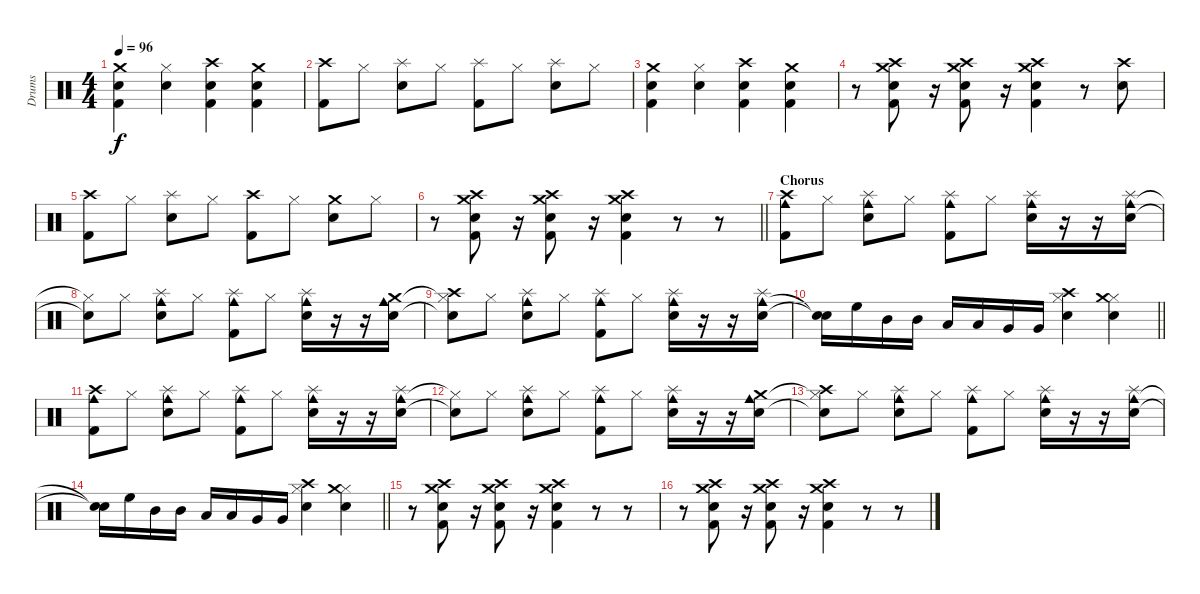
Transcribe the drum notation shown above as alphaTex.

\track ("Drums" "Drums") {instrument percussion}
\staff {score}
\articulation defaults
\ts (4 4)
\tempo 96
\clef neutral
\ks c
("Snare (hit) 2" "Kick (hit) 2" "Crash medium (hit)").4{dy f} ("Snare (hit) 2" "Hi-Hat (closed)").4 ("Snare (hit) 2" "Kick (hit) 2" "Crash high (hit)").4 ("Snare (hit) 2" "Kick (hit) 2" "Crash medium (hit)").4 |
("Kick (hit) 2" "Crash high (hit)").8 "Hi-Hat (closed)".8 ("Snare (hit) 2" "Splash (hit)").8 "Hi-Hat (closed)".8 ("Kick (hit) 2" "Splash (hit)").8 "Hi-Hat (closed)".8 ("Snare (hit) 2" "Splash (hit)").8 "Hi-Hat (closed)".8 |
("Snare (hit) 2" "Kick (hit) 2" "Crash medium (hit)").4 ("Snare (hit) 2" "Hi-Hat (closed)").4 ("Snare (hit) 2" "Kick (hit) 2" "Crash high (hit)").4 ("Snare (hit) 2" "Kick (hit) 2" "Crash medium (hit)").4 |
r.8 ("Snare (hit) 2" "Kick (hit) 2" "Crash high (hit)" "Crash medium (hit)").8 r.16 ("Snare (hit) 2" "Kick (hit) 2" "Crash high (hit)" "Crash medium (hit)").8 r.16 ("Snare (hit) 2" "Kick (hit) 2" "Crash high (hit)" "Crash medium (hit)").4 r.8 ("Snare (hit) 2" "Crash high (hit)").8 |
("Kick (hit) 2" "Crash high (hit)").8 "Hi-Hat (closed)".8 ("Snare (hit) 2" "Splash (hit)").8 "Hi-Hat (closed)".8 ("Kick (hit) 2" "Crash high (hit)").8 "Hi-Hat (closed)".8 ("Snare (hit) 2" "Crash medium (hit)").8 "Hi-Hat (closed)".8 |
\barLineRight lightlight
r.8 ("Snare (hit) 2" "Kick (hit) 2" "Crash high (hit)" "Crash medium (hit)").8 r.16 ("Snare (hit) 2" "Kick (hit) 2" "Crash high (hit)" "Crash medium (hit)").8 r.16 ("Snare (hit) 2" "Kick (hit) 2" "Crash high (hit)" "Crash medium (hit)").4 r.8 r.8 |
\section ("" "Chorus")
("Kick (hit) 2" "Cowbell medium (hit)" "Crash high (hit)").8 "Hi-Hat (closed)".8 ("Snare (hit) 2" "Cowbell medium (hit)" "Splash (hit)").8 "Hi-Hat (closed)".8 ("Kick (hit) 2" "Cowbell medium (hit)" "Splash (hit)").8 "Hi-Hat (closed)".8 ("Snare (hit) 2" "Cowbell medium (hit)" "Splash (hit)").16 r.16 r.16 ("Snare (hit) 2" "Cowbell medium (hit)" "Splash (hit)").16 |
("Snare (hit) 2"{t} "Hi-Hat (closed)"{t}).8 "Hi-Hat (closed)".8 ("Snare (hit) 2" "Cowbell medium (hit)" "Splash (hit)").8 "Hi-Hat (closed)".8 ("Kick (hit) 2" "Cowbell medium (hit)" "Splash (hit)").8 "Hi-Hat (closed)".8 ("Snare (hit) 2" "Cowbell medium (hit)" "Splash (hit)").16 r.16 r.16 ("Snare (hit) 2" "Cowbell medium (hit)" "Crash medium (hit)").16 |
("Snare (hit) 2"{t} "Hi-Hat (closed)"{t} "Crash high (hit)").8 "Hi-Hat (closed)".8 ("Snare (hit) 2" "Cowbell medium (hit)" "Splash (hit)").8 "Hi-Hat (closed)".8 ("Kick (hit) 2" "Cowbell medium (hit)" "Splash (hit)").8 "Hi-Hat (closed)".8 ("Snare (hit) 2" "Cowbell medium (hit)" "Splash (hit)").16 r.16 r.16 ("Snare (hit) 2" "Cowbell medium (hit)" "Splash (hit)").16 |
\barLineRight lightlight
("Snare (hit)"{t} "Snare (hit)"{t}).16 "High Floor Tom (hit)".16 "Mid Tom (hit)".16 "Mid Tom (hit)".16 "Low Tom (hit)".16 "Low Tom (hit)".16 "Very Low Tom (hit)".16 "Very Low Tom (hit)".16 ("Snare (hit) 2" "Hi-Hat (closed)" "Crash high (hit)").4 ("Snare (hit) 2" "Hi-Hat (closed)" "Crash medium (hit)").4 |
("Kick (hit) 2" "Cowbell medium (hit)" "Crash high (hit)").8 "Hi-Hat (closed)".8 ("Snare (hit) 2" "Cowbell medium (hit)" "Splash (hit)").8 "Hi-Hat (closed)".8 ("Kick (hit) 2" "Cowbell medium (hit)" "Splash (hit)").8 "Hi-Hat (closed)".8 ("Snare (hit) 2" "Cowbell medium (hit)" "Splash (hit)").16 r.16 r.16 ("Snare (hit) 2" "Cowbell medium (hit)" "Splash (hit)").16 |
("Snare (hit) 2"{t} "Hi-Hat (closed)"{t}).8 "Hi-Hat (closed)".8 ("Snare (hit) 2" "Cowbell medium (hit)" "Splash (hit)").8 "Hi-Hat (closed)".8 ("Kick (hit) 2" "Cowbell medium (hit)" "Splash (hit)").8 "Hi-Hat (closed)".8 ("Snare (hit) 2" "Cowbell medium (hit)" "Splash (hit)").16 r.16 r.16 ("Snare (hit) 2" "Cowbell medium (hit)" "Crash medium (hit)").16 |
("Snare (hit) 2"{t} "Hi-Hat (closed)"{t} "Crash high (hit)").8 "Hi-Hat (closed)".8 ("Snare (hit) 2" "Cowbell medium (hit)" "Splash (hit)").8 "Hi-Hat (closed)".8 ("Kick (hit) 2" "Cowbell medium (hit)" "Splash (hit)").8 "Hi-Hat (closed)".8 ("Snare (hit) 2" "Cowbell medium (hit)" "Splash (hit)").16 r.16 r.16 ("Snare (hit) 2" "Cowbell medium (hit)" "Splash (hit)").16 |
\barLineRight lightlight
("Snare (hit)"{t} "Snare (hit)"{t}).16 "High Floor Tom (hit)".16 "Mid Tom (hit)".16 "Mid Tom (hit)".16 "Low Tom (hit)".16 "Low Tom (hit)".16 "Very Low Tom (hit)".16 "Very Low Tom (hit)".16 ("Snare (hit) 2" "Hi-Hat (closed)" "Crash high (hit)").4 ("Snare (hit) 2" "Hi-Hat (closed)" "Crash medium (hit)").4 |
r.8 ("Snare (hit) 2" "Kick (hit) 2" "Crash high (hit)" "Crash medium (hit)").8 r.16 ("Snare (hit) 2" "Kick (hit) 2" "Crash high (hit)" "Crash medium (hit)").8 r.16 ("Snare (hit) 2" "Kick (hit) 2" "Crash high (hit)" "Crash medium (hit)").4 r.8 r.8 |
r.8 ("Snare (hit) 2" "Kick (hit) 2" "Crash high (hit)" "Crash medium (hit)").8 r.16 ("Snare (hit) 2" "Kick (hit) 2" "Crash high (hit)" "Crash medium (hit)").8 r.16 ("Snare (hit) 2" "Kick (hit) 2" "Crash high (hit)" "Crash medium (hit)").4 r.8 r.8
